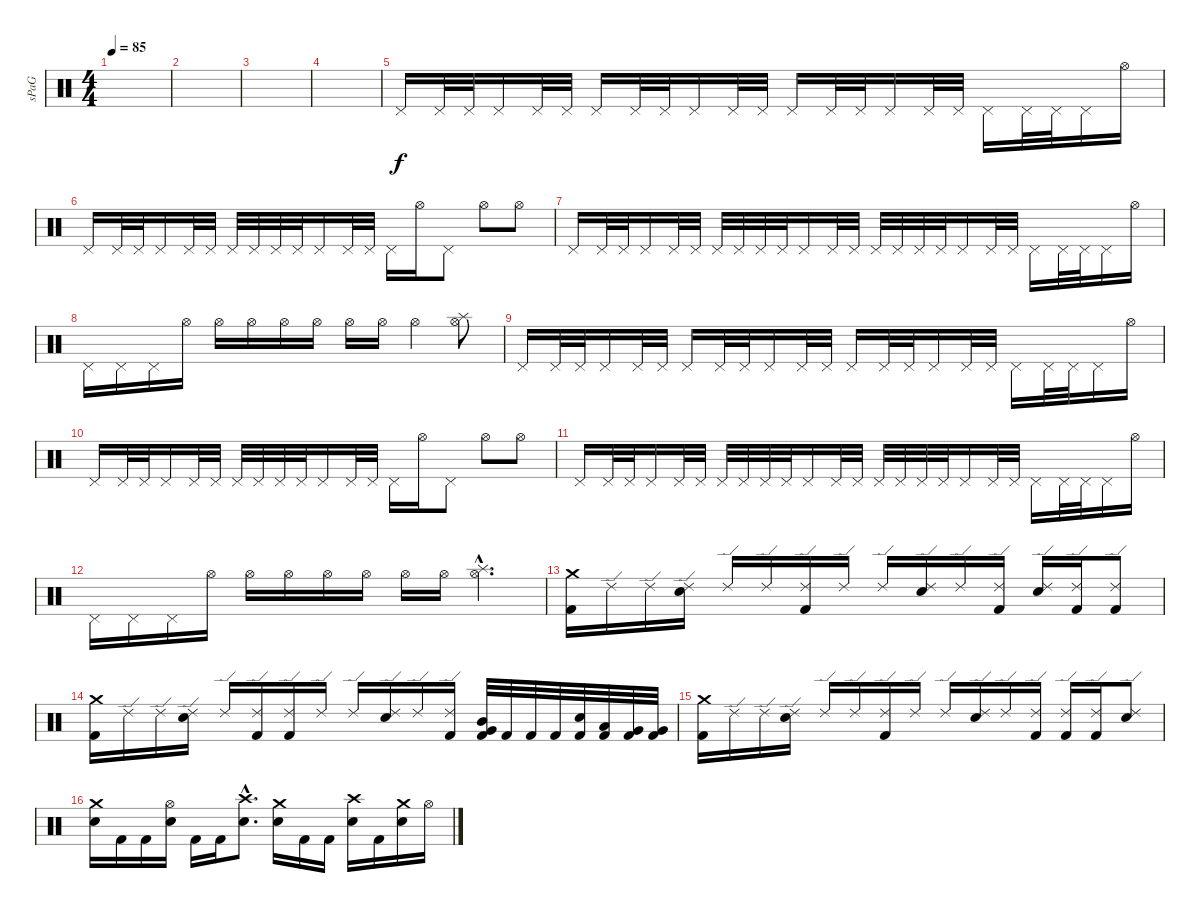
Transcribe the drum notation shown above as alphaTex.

\track ("sPaG" "sPaG") {instrument percussion}
\staff {score}
\articulation defaults
\ts (4 4)
\tempo 85
\clef neutral
\ks c
|
|
|
|
"Pedal Hi-Hat (hit)".16 "Pedal Hi-Hat (hit)".32 "Pedal Hi-Hat (hit)".32 "Pedal Hi-Hat (hit)".16 "Pedal Hi-Hat (hit)".32 "Pedal Hi-Hat (hit)".32 "Pedal Hi-Hat (hit)".16 "Pedal Hi-Hat (hit)".32 "Pedal Hi-Hat (hit)".32 "Pedal Hi-Hat (hit)".16 "Pedal Hi-Hat (hit)".32 "Pedal Hi-Hat (hit)".32 "Pedal Hi-Hat (hit)".16 "Pedal Hi-Hat (hit)".32 "Pedal Hi-Hat (hit)".32 "Pedal Hi-Hat (hit)".16 "Pedal Hi-Hat (hit)".32 "Pedal Hi-Hat (hit)".32 "Pedal Hi-Hat (hit)".16 "Pedal Hi-Hat (hit)".32 "Pedal Hi-Hat (hit)".32 "Pedal Hi-Hat (hit)".16 "Hi-Hat (open)".16 |
"Pedal Hi-Hat (hit)".16 "Pedal Hi-Hat (hit)".32 "Pedal Hi-Hat (hit)".32 "Pedal Hi-Hat (hit)".16 "Pedal Hi-Hat (hit)".32 "Pedal Hi-Hat (hit)".32 "Pedal Hi-Hat (hit)".32 "Pedal Hi-Hat (hit)".32 "Pedal Hi-Hat (hit)".32 "Pedal Hi-Hat (hit)".32 "Pedal Hi-Hat (hit)".16 "Pedal Hi-Hat (hit)".32 "Pedal Hi-Hat (hit)".32 "Pedal Hi-Hat (hit)".16 "Hi-Hat (open)".16 "Pedal Hi-Hat (hit)".8 "Hi-Hat (open)".8 "Hi-Hat (open)".8 |
"Pedal Hi-Hat (hit)".16 "Pedal Hi-Hat (hit)".32 "Pedal Hi-Hat (hit)".32 "Pedal Hi-Hat (hit)".16 "Pedal Hi-Hat (hit)".32 "Pedal Hi-Hat (hit)".32 "Pedal Hi-Hat (hit)".32 "Pedal Hi-Hat (hit)".32 "Pedal Hi-Hat (hit)".32 "Pedal Hi-Hat (hit)".32 "Pedal Hi-Hat (hit)".16 "Pedal Hi-Hat (hit)".32 "Pedal Hi-Hat (hit)".32 "Pedal Hi-Hat (hit)".32 "Pedal Hi-Hat (hit)".32 "Pedal Hi-Hat (hit)".32 "Pedal Hi-Hat (hit)".32 "Pedal Hi-Hat (hit)".16 "Pedal Hi-Hat (hit)".32 "Pedal Hi-Hat (hit)".32 "Pedal Hi-Hat (hit)".16 "Pedal Hi-Hat (hit)".32 "Pedal Hi-Hat (hit)".32 "Pedal Hi-Hat (hit)".16 "Hi-Hat (open)".16 |
"Pedal Hi-Hat (hit)".16 "Pedal Hi-Hat (hit)".16 "Pedal Hi-Hat (hit)".16 "Hi-Hat (open)".16 "Hi-Hat (open)".16 "Hi-Hat (open)".16 "Hi-Hat (open)".16 "Hi-Hat (open)".16 "Hi-Hat (open)".16 "Hi-Hat (open)".16 "Hi-Hat (open)".4 ("Splash (hit)" "Hi-Hat (open)").8 |
"Pedal Hi-Hat (hit)".16 "Pedal Hi-Hat (hit)".32 "Pedal Hi-Hat (hit)".32 "Pedal Hi-Hat (hit)".16 "Pedal Hi-Hat (hit)".32 "Pedal Hi-Hat (hit)".32 "Pedal Hi-Hat (hit)".16 "Pedal Hi-Hat (hit)".32 "Pedal Hi-Hat (hit)".32 "Pedal Hi-Hat (hit)".16 "Pedal Hi-Hat (hit)".32 "Pedal Hi-Hat (hit)".32 "Pedal Hi-Hat (hit)".16 "Pedal Hi-Hat (hit)".32 "Pedal Hi-Hat (hit)".32 "Pedal Hi-Hat (hit)".16 "Pedal Hi-Hat (hit)".32 "Pedal Hi-Hat (hit)".32 "Pedal Hi-Hat (hit)".16 "Pedal Hi-Hat (hit)".32 "Pedal Hi-Hat (hit)".32 "Pedal Hi-Hat (hit)".16 "Hi-Hat (open)".16 |
"Pedal Hi-Hat (hit)".16 "Pedal Hi-Hat (hit)".32 "Pedal Hi-Hat (hit)".32 "Pedal Hi-Hat (hit)".16 "Pedal Hi-Hat (hit)".32 "Pedal Hi-Hat (hit)".32 "Pedal Hi-Hat (hit)".32 "Pedal Hi-Hat (hit)".32 "Pedal Hi-Hat (hit)".32 "Pedal Hi-Hat (hit)".32 "Pedal Hi-Hat (hit)".16 "Pedal Hi-Hat (hit)".32 "Pedal Hi-Hat (hit)".32 "Pedal Hi-Hat (hit)".16 "Hi-Hat (open)".16 "Pedal Hi-Hat (hit)".8 "Hi-Hat (open)".8 "Hi-Hat (open)".8 |
"Pedal Hi-Hat (hit)".16 "Pedal Hi-Hat (hit)".32 "Pedal Hi-Hat (hit)".32 "Pedal Hi-Hat (hit)".16 "Pedal Hi-Hat (hit)".32 "Pedal Hi-Hat (hit)".32 "Pedal Hi-Hat (hit)".32 "Pedal Hi-Hat (hit)".32 "Pedal Hi-Hat (hit)".32 "Pedal Hi-Hat (hit)".32 "Pedal Hi-Hat (hit)".16 "Pedal Hi-Hat (hit)".32 "Pedal Hi-Hat (hit)".32 "Pedal Hi-Hat (hit)".32 "Pedal Hi-Hat (hit)".32 "Pedal Hi-Hat (hit)".32 "Pedal Hi-Hat (hit)".32 "Pedal Hi-Hat (hit)".16 "Pedal Hi-Hat (hit)".32 "Pedal Hi-Hat (hit)".32 "Pedal Hi-Hat (hit)".16 "Pedal Hi-Hat (hit)".32 "Pedal Hi-Hat (hit)".32 "Pedal Hi-Hat (hit)".16 "Hi-Hat (open)".16 |
"Pedal Hi-Hat (hit)".16 "Pedal Hi-Hat (hit)".16 "Pedal Hi-Hat (hit)".16 "Hi-Hat (open)".16 "Hi-Hat (open)".16 "Hi-Hat (open)".16 "Hi-Hat (open)".16 "Hi-Hat (open)".16 "Hi-Hat (open)".16 "Hi-Hat (open)".16 ("Splash (hit)"{hac} "Hi-Hat (open)"{hac}).4{d} |
("Crash medium (hit)" "Kick (hit) 2").16 "Ride (edge) 2".16 "Ride (edge) 2".16 ("Ride (edge) 2" "Snare (hit) 2").16 "Ride (edge) 2".16 "Ride (edge) 2".16 ("Ride (edge) 2" "Kick (hit) 2").16 "Ride (edge) 2".16 "Ride (edge) 2".16 ("Ride (edge) 2" "Snare (hit) 2").16 "Ride (edge) 2".16 ("Ride (edge) 2" "Kick (hit) 2").16 ("Ride (edge) 2" "Snare (hit) 2").16 ("Ride (edge) 2" "Kick (hit) 2").16 ("Ride (edge) 2" "Kick (hit) 2").8 |
("Crash medium (hit)" "Kick (hit) 2").16 "Ride (edge) 2".16 "Ride (edge) 2".16 ("Ride (edge) 2" "Snare (hit) 2").16 "Ride (edge) 2".16 ("Ride (edge) 2" "Kick (hit) 2").16 ("Ride (edge) 2" "Kick (hit) 2").16 "Ride (edge) 2".16 "Ride (edge) 2".16 ("Ride (edge) 2" "Snare (hit) 2").16 "Ride (edge) 2".16 ("Ride (edge) 2" "Kick (hit) 2").16 ("Mid Tom (hit)" "Very Low Tom (hit)" "Kick (hit) 2").32 "Kick (hit) 2".32 "Kick (hit) 2".32 "Kick (hit) 2".32 ("Snare (hit) 2" "Kick (hit) 2").32 ("Low Tom (hit)" "Kick (hit) 2").32 ("Very Low Tom (hit)" "Kick (hit) 2").32 ("Very Low Tom (hit)" "Kick (hit) 2").32 |
("Crash medium (hit)" "Kick (hit) 2").16 "Ride (edge) 2".16 "Ride (edge) 2".16 ("Ride (edge) 2" "Snare (hit) 2").16 "Ride (edge) 2".16 "Ride (edge) 2".16 ("Ride (edge) 2" "Kick (hit) 2").16 "Ride (edge) 2".16 "Ride (edge) 2".16 ("Ride (edge) 2" "Snare (hit) 2").16 "Ride (edge) 2".16 ("Ride (edge) 2" "Kick (hit) 2").16 ("Ride (edge) 2" "Kick (hit) 2").16 ("Ride (edge) 2" "Kick (hit) 2").16 ("Ride (edge) 2" "Snare (hit) 2").8 |
("Crash medium (hit)" "Snare (hit) 2").16 "Kick (hit) 2".16 "Kick (hit) 2".16 ("Hi-Hat (open)" "Snare (hit) 2").16 "Kick (hit) 2".16 "Kick (hit) 2".16 ("Crash high (hit)"{hac} "Snare (hit) 2"{hac}).8{d} ("Crash medium (hit)" "Snare (hit) 2").16 "Kick (hit) 2".16 "Kick (hit) 2".16 ("Crash high (hit)" "Snare (hit) 2").16 "Kick (hit) 2".16 ("Crash medium (hit)" "Snare (hit) 2").16 "Hi-Hat (open)".16
